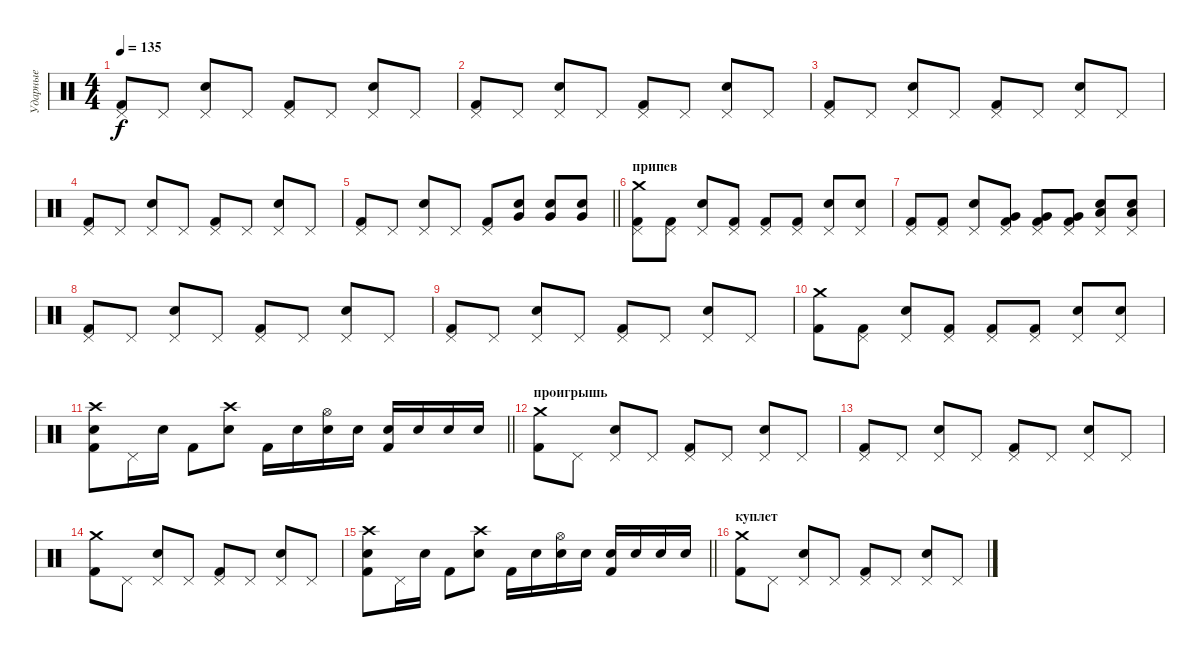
\track ("Ударные" "Ударные") {instrument percussion}
\staff {score}
\articulation defaults
\ts (4 4)
\tempo 135
\clef neutral
\ks c
("Pedal Hi-Hat (hit)" "Kick (hit) 2").8{dy f} "Pedal Hi-Hat (hit)".8 ("Pedal Hi-Hat (hit)" "Electric Snare (hit)").8 "Pedal Hi-Hat (hit)".8 ("Pedal Hi-Hat (hit)" "Kick (hit) 2").8 "Pedal Hi-Hat (hit)".8 ("Pedal Hi-Hat (hit)" "Electric Snare (hit)").8 "Pedal Hi-Hat (hit)".8 |
("Pedal Hi-Hat (hit)" "Kick (hit) 2").8 "Pedal Hi-Hat (hit)".8 ("Pedal Hi-Hat (hit)" "Electric Snare (hit)").8 "Pedal Hi-Hat (hit)".8 ("Pedal Hi-Hat (hit)" "Kick (hit) 2").8 "Pedal Hi-Hat (hit)".8 ("Pedal Hi-Hat (hit)" "Electric Snare (hit)").8 "Pedal Hi-Hat (hit)".8 |
("Pedal Hi-Hat (hit)" "Kick (hit) 2").8 "Pedal Hi-Hat (hit)".8 ("Pedal Hi-Hat (hit)" "Electric Snare (hit)").8 "Pedal Hi-Hat (hit)".8 ("Pedal Hi-Hat (hit)" "Kick (hit) 2").8 "Pedal Hi-Hat (hit)".8 ("Pedal Hi-Hat (hit)" "Electric Snare (hit)").8 "Pedal Hi-Hat (hit)".8 |
("Pedal Hi-Hat (hit)" "Kick (hit) 2").8 "Pedal Hi-Hat (hit)".8 ("Pedal Hi-Hat (hit)" "Electric Snare (hit)").8 "Pedal Hi-Hat (hit)".8 ("Pedal Hi-Hat (hit)" "Kick (hit) 2").8 "Pedal Hi-Hat (hit)".8 ("Pedal Hi-Hat (hit)" "Electric Snare (hit)").8 "Pedal Hi-Hat (hit)".8 |
\barLineRight lightlight
("Pedal Hi-Hat (hit)" "Kick (hit) 2").8 "Pedal Hi-Hat (hit)".8 ("Pedal Hi-Hat (hit)" "Electric Snare (hit)").8 "Pedal Hi-Hat (hit)".8 ("Pedal Hi-Hat (hit)" "Kick (hit) 2").8 ("Electric Snare (hit)" "Very Low Tom (hit)").8 ("Electric Snare (hit)" "Very Low Tom (hit)").8 ("Electric Snare (hit)" "Very Low Tom (hit)").8 |
\section ("" "припев")
("Crash medium (hit)" "Pedal Hi-Hat (hit)" "Kick (hit) 2").8 ("Pedal Hi-Hat (hit)" "Kick (hit) 2").8 ("Pedal Hi-Hat (hit)" "Electric Snare (hit)").8 ("Pedal Hi-Hat (hit)" "Kick (hit) 2").8 ("Pedal Hi-Hat (hit)" "Kick (hit) 2").8 ("Pedal Hi-Hat (hit)" "Kick (hit) 2").8 ("Pedal Hi-Hat (hit)" "Electric Snare (hit)").8 ("Pedal Hi-Hat (hit)" "Electric Snare (hit)").8 |
("Pedal Hi-Hat (hit)" "Kick (hit) 2").8 ("Pedal Hi-Hat (hit)" "Kick (hit) 2").8 ("Pedal Hi-Hat (hit)" "Electric Snare (hit)").8 ("Pedal Hi-Hat (hit)" "Very Low Tom (hit)" "Kick (hit) 2").8 ("Pedal Hi-Hat (hit)" "Very Low Tom (hit)" "Kick (hit) 2").8 ("Pedal Hi-Hat (hit)" "Very Low Tom (hit)" "Kick (hit) 2").8 ("Pedal Hi-Hat (hit)" "Low Floor Tom (hit)" "Electric Snare (hit)").8 ("Pedal Hi-Hat (hit)" "Low Floor Tom (hit)" "Electric Snare (hit)").8 |
("Pedal Hi-Hat (hit)" "Kick (hit) 2").8 "Pedal Hi-Hat (hit)".8 ("Pedal Hi-Hat (hit)" "Electric Snare (hit)").8 "Pedal Hi-Hat (hit)".8 ("Pedal Hi-Hat (hit)" "Kick (hit) 2").8 "Pedal Hi-Hat (hit)".8 ("Pedal Hi-Hat (hit)" "Electric Snare (hit)").8 "Pedal Hi-Hat (hit)".8 |
("Pedal Hi-Hat (hit)" "Kick (hit) 2").8 "Pedal Hi-Hat (hit)".8 ("Pedal Hi-Hat (hit)" "Electric Snare (hit)").8 "Pedal Hi-Hat (hit)".8 ("Pedal Hi-Hat (hit)" "Kick (hit) 2").8 "Pedal Hi-Hat (hit)".8 ("Pedal Hi-Hat (hit)" "Electric Snare (hit)").8 "Pedal Hi-Hat (hit)".8 |
("Crash medium (hit)" "Kick (hit) 2").8 ("Pedal Hi-Hat (hit)" "Kick (hit) 2").8 ("Pedal Hi-Hat (hit)" "Electric Snare (hit)").8 ("Pedal Hi-Hat (hit)" "Kick (hit) 2").8 ("Pedal Hi-Hat (hit)" "Kick (hit) 2").8 ("Pedal Hi-Hat (hit)" "Kick (hit) 2").8 ("Pedal Hi-Hat (hit)" "Electric Snare (hit)").8 ("Pedal Hi-Hat (hit)" "Electric Snare (hit)").8 |
\barLineRight lightlight
("Electric Snare (hit)" "Crash high (hit)" "Kick (hit) 2").8 "Pedal Hi-Hat (hit)".16 "Electric Snare (hit)".16 "Kick (hit) 2".8 ("Electric Snare (hit)" "Crash high (hit)").8 "Kick (hit) 2".16 "Electric Snare (hit)".16 ("Electric Snare (hit)" "Hi-Hat (open)").16 "Electric Snare (hit)".16 ("Electric Snare (hit)" "Kick (hit) 2").16 "Electric Snare (hit)".16 "Electric Snare (hit)".16 "Electric Snare (hit)".16 |
\section ("" "проигрышь")
("Crash medium (hit)" "Kick (hit) 2").8 "Pedal Hi-Hat (hit)".8 ("Pedal Hi-Hat (hit)" "Electric Snare (hit)").8 "Pedal Hi-Hat (hit)".8 ("Pedal Hi-Hat (hit)" "Kick (hit) 2").8 "Pedal Hi-Hat (hit)".8 ("Pedal Hi-Hat (hit)" "Electric Snare (hit)").8 "Pedal Hi-Hat (hit)".8 |
("Pedal Hi-Hat (hit)" "Kick (hit) 2").8 "Pedal Hi-Hat (hit)".8 ("Pedal Hi-Hat (hit)" "Electric Snare (hit)").8 "Pedal Hi-Hat (hit)".8 ("Pedal Hi-Hat (hit)" "Kick (hit) 2").8 "Pedal Hi-Hat (hit)".8 ("Pedal Hi-Hat (hit)" "Electric Snare (hit)").8 "Pedal Hi-Hat (hit)".8 |
("Crash medium (hit)" "Kick (hit) 2").8 "Pedal Hi-Hat (hit)".8 ("Pedal Hi-Hat (hit)" "Electric Snare (hit)").8 "Pedal Hi-Hat (hit)".8 ("Pedal Hi-Hat (hit)" "Kick (hit) 2").8 "Pedal Hi-Hat (hit)".8 ("Pedal Hi-Hat (hit)" "Electric Snare (hit)").8 "Pedal Hi-Hat (hit)".8 |
\barLineRight lightlight
("Electric Snare (hit)" "Crash high (hit)" "Kick (hit) 2").8 "Pedal Hi-Hat (hit)".16 "Electric Snare (hit)".16 "Kick (hit) 2".8 ("Electric Snare (hit)" "Crash high (hit)").8 "Kick (hit) 2".16 "Electric Snare (hit)".16 ("Electric Snare (hit)" "Hi-Hat (open)").16 "Electric Snare (hit)".16 ("Electric Snare (hit)" "Kick (hit) 2").16 "Electric Snare (hit)".16 "Electric Snare (hit)".16 "Electric Snare (hit)".16 |
\section ("" "куплет")
("Crash medium (hit)" "Kick (hit) 2").8 "Pedal Hi-Hat (hit)".8 ("Pedal Hi-Hat (hit)" "Electric Snare (hit)").8 "Pedal Hi-Hat (hit)".8 ("Pedal Hi-Hat (hit)" "Kick (hit) 2").8 "Pedal Hi-Hat (hit)".8 ("Pedal Hi-Hat (hit)" "Electric Snare (hit)").8 "Pedal Hi-Hat (hit)".8
